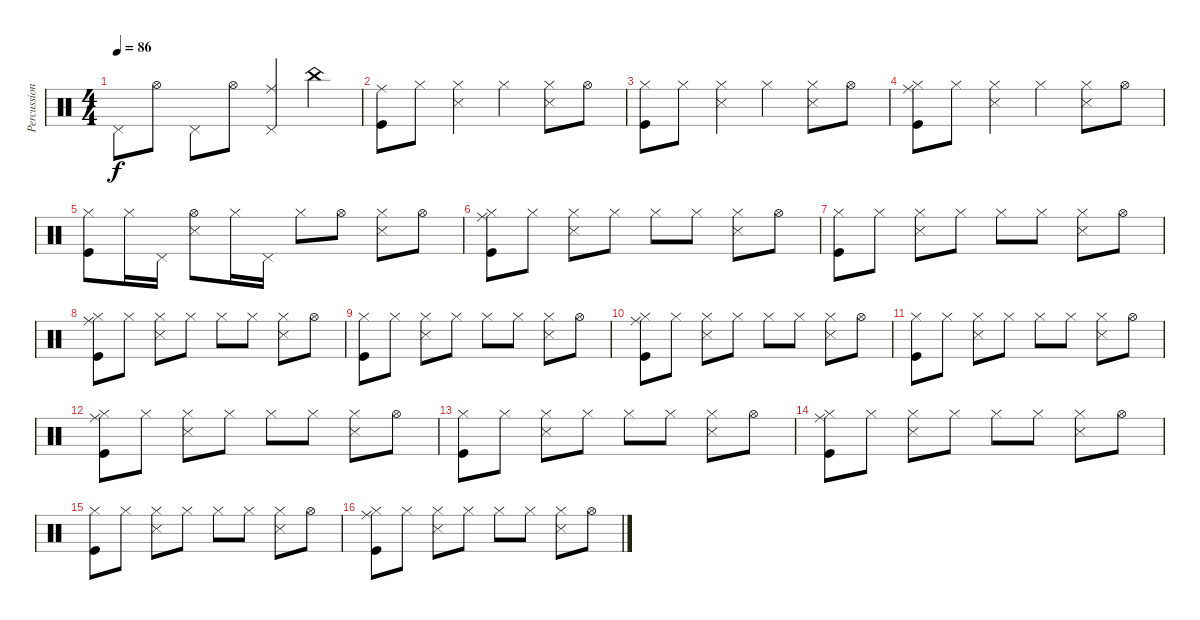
\track ("Percussion" "Percussion") {instrument percussion}
\staff {score}
\articulation defaults
\ts (4 4)
\tempo 86
\clef neutral
\ks c "Pedal Hi-Hat (hit)".8{dy f} "Hi-Hat (open)".8 "Pedal Hi-Hat (hit)".8 "Hi-Hat (open)".8
("Pedal Hi-Hat (hit)" "Ride (middle)").4 "China (hit)".4 |
("Kick (hit)" "Ride (middle)").8 "Hi-Hat (closed)".8 ("Hi-Hat (closed)" "Snare (side stick) 3").4 "Hi-Hat (closed)".4 ("Hi-Hat (closed)" "Snare (side stick) 3").8 "Hi-Hat (open)".8 |
("Kick (hit)" "Hi-Hat (closed)").8 "Hi-Hat (closed)".8 ("Hi-Hat (closed)" "Snare (side stick) 3").4 "Hi-Hat (closed)".4 ("Hi-Hat (closed)" "Snare (side stick) 3").8 "Hi-Hat (open)".8 |
("Kick (hit)" "Ride (middle)" "Hi-Hat (closed)").8 "Hi-Hat (closed)".8 ("Hi-Hat (closed)" "Snare (side stick) 3").4 "Hi-Hat (closed)".4 ("Hi-Hat (closed)" "Snare (side stick) 3").8 "Hi-Hat (open)".8 |
("Kick (hit)" "Hi-Hat (closed)").8 "Hi-Hat (closed)".16 "Pedal Hi-Hat (hit)".16 ("Hi-Hat (open)" "Snare (side stick) 3").8 "Hi-Hat (closed)".16 "Pedal Hi-Hat (hit)".16 "Hi-Hat (closed)".8 "Hi-Hat (open)".8 ("Hi-Hat (closed)" "Snare (side stick) 3").8 "Hi-Hat (open)".8 |
("Kick (hit)" "Ride (middle)" "Hi-Hat (closed)").8 "Hi-Hat (closed)".8 ("Hi-Hat (closed)" "Snare (side stick) 3").8 "Hi-Hat (closed)".8 "Hi-Hat (closed)".8 "Hi-Hat (closed)".8 ("Hi-Hat (closed)" "Snare (side stick) 3").8 "Hi-Hat (open)".8 |
("Kick (hit)" "Hi-Hat (closed)").8 "Hi-Hat (closed)".8 ("Hi-Hat (closed)" "Snare (side stick) 3").8 "Hi-Hat (closed)".8 "Hi-Hat (closed)".8 "Hi-Hat (closed)".8 ("Hi-Hat (closed)" "Snare (side stick) 3").8 "Hi-Hat (open)".8 |
("Kick (hit)" "Ride (middle)" "Hi-Hat (closed)").8 "Hi-Hat (closed)".8 ("Hi-Hat (closed)" "Snare (side stick) 3").8 "Hi-Hat (closed)".8 "Hi-Hat (closed)".8 "Hi-Hat (closed)".8 ("Hi-Hat (closed)" "Snare (side stick) 3").8 "Hi-Hat (open)".8 |
("Kick (hit)" "Hi-Hat (closed)").8 "Hi-Hat (closed)".8 ("Hi-Hat (closed)" "Snare (side stick) 3").8 "Hi-Hat (closed)".8 "Hi-Hat (closed)".8 "Hi-Hat (closed)".8 ("Hi-Hat (closed)" "Snare (side stick) 3").8 "Hi-Hat (open)".8 |
("Kick (hit)" "Ride (middle)" "Hi-Hat (closed)").8 "Hi-Hat (closed)".8 ("Hi-Hat (closed)" "Snare (side stick) 3").8 "Hi-Hat (closed)".8 "Hi-Hat (closed)".8 "Hi-Hat (closed)".8 ("Hi-Hat (closed)" "Snare (side stick) 3").8 "Hi-Hat (open)".8 |
("Kick (hit)" "Hi-Hat (closed)").8 "Hi-Hat (closed)".8 ("Hi-Hat (closed)" "Snare (side stick) 3").8 "Hi-Hat (closed)".8 "Hi-Hat (closed)".8 "Hi-Hat (closed)".8 ("Hi-Hat (closed)" "Snare (side stick) 3").8 "Hi-Hat (open)".8 |
("Kick (hit)" "Ride (middle)" "Hi-Hat (closed)").8 "Hi-Hat (closed)".8 ("Hi-Hat (closed)" "Snare (side stick) 3").8 "Hi-Hat (closed)".8 "Hi-Hat (closed)".8 "Hi-Hat (closed)".8 ("Hi-Hat (closed)" "Snare (side stick) 3").8 "Hi-Hat (open)".8 |
("Kick (hit)" "Hi-Hat (closed)").8 "Hi-Hat (closed)".8 ("Hi-Hat (closed)" "Snare (side stick) 3").8 "Hi-Hat (closed)".8 "Hi-Hat (closed)".8 "Hi-Hat (closed)".8 ("Hi-Hat (closed)" "Snare (side stick) 3").8 "Hi-Hat (open)".8 |
("Kick (hit)" "Ride (middle)" "Hi-Hat (closed)").8 "Hi-Hat (closed)".8 ("Hi-Hat (closed)" "Snare (side stick) 3").8 "Hi-Hat (closed)".8 "Hi-Hat (closed)".8 "Hi-Hat (closed)".8 ("Hi-Hat (closed)" "Snare (side stick) 3").8 "Hi-Hat (open)".8 |
("Kick (hit)" "Hi-Hat (closed)").8 "Hi-Hat (closed)".8 ("Hi-Hat (closed)" "Snare (side stick) 3").8 "Hi-Hat (closed)".8 "Hi-Hat (closed)".8 "Hi-Hat (closed)".8 ("Hi-Hat (closed)" "Snare (side stick) 3").8 "Hi-Hat (open)".8 |
("Kick (hit)" "Ride (middle)" "Hi-Hat (closed)").8 "Hi-Hat (closed)".8 ("Hi-Hat (closed)" "Snare (side stick) 3").8 "Hi-Hat (closed)".8 "Hi-Hat (closed)".8 "Hi-Hat (closed)".8 ("Hi-Hat (closed)" "Snare (side stick) 3").8 "Hi-Hat (open)".8
